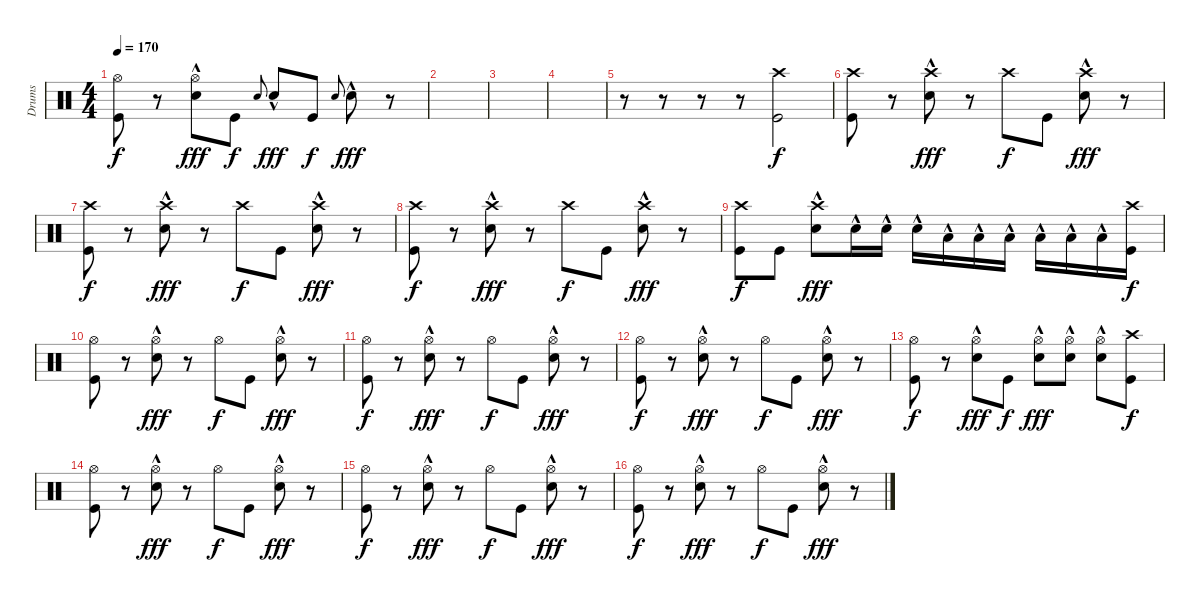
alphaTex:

\track ("Drums" "Drums") {instrument percussion}
\staff {score}
\articulation defaults
\ts (4 4)
\tempo 170
\clef neutral
\ks c
("Hi-Hat (open)" "Kick (hit)").8{dy f} r.8 ("Hi-Hat (open)" "Electric Snare (hit)"{hac}).8{dy fff} "Kick (hit)".8{dy f} "Electric Snare (hit)".8{gr onbeat} "Electric Snare (hit)"{hac}.8{dy fff} "Kick (hit)".8{dy f} "Electric Snare (hit)".8{gr onbeat} "Electric Snare (hit)"{hac}.8{dy fff} r.8 |
|
|
|
r.8 r.8 r.8 r.8 ("Crash high (hit)" "Kick (hit)").2{dy f} |
("Crash high (hit)" "Kick (hit)").8 r.8 ("Crash high (hit)" "Electric Snare (hit)"{hac}).8{dy fff} r.8 "Crash high (hit)".8{dy f} "Kick (hit)".8 ("Crash high (hit)" "Electric Snare (hit)"{hac}).8{dy fff} r.8 |
("Crash high (hit)" "Kick (hit)").8{dy f} r.8 ("Crash high (hit)" "Electric Snare (hit)"{hac}).8{dy fff} r.8 "Crash high (hit)".8{dy f} "Kick (hit)".8 ("Crash high (hit)" "Electric Snare (hit)"{hac}).8{dy fff} r.8 |
("Crash high (hit)" "Kick (hit)").8{dy f} r.8 ("Crash high (hit)" "Electric Snare (hit)"{hac}).8{dy fff} r.8 "Crash high (hit)".8{dy f} "Kick (hit)".8 ("Crash high (hit)" "Electric Snare (hit)"{hac}).8{dy fff} r.8 |
("Crash high (hit)" "Kick (hit)").8{dy f} "Kick (hit)".8 ("Crash high (hit)" "Electric Snare (hit)"{hac}).8{dy fff} "Electric Snare (hit)"{hac}.16 "Electric Snare (hit)"{hac}.16 "Electric Snare (hit)"{hac}.16 "Low Tom (hit)"{hac}.16 "Low Tom (hit)"{hac}.16 "Low Tom (hit)"{hac}.16 "Low Floor Tom (hit)"{hac}.16 "Low Floor Tom (hit)"{hac}.16 "Low Floor Tom (hit)"{hac}.16 ("Crash high (hit)" "Kick (hit)").16{dy f} |
("Hi-Hat (open)" "Kick (hit)").8 r.8 ("Hi-Hat (open)" "Electric Snare (hit)"{hac}).8{dy fff} r.8 "Hi-Hat (open)".8{dy f} "Kick (hit)".8 ("Hi-Hat (open)" "Electric Snare (hit)"{hac}).8{dy fff} r.8 |
("Hi-Hat (open)" "Kick (hit)").8{dy f} r.8 ("Hi-Hat (open)" "Electric Snare (hit)"{hac}).8{dy fff} r.8 "Hi-Hat (open)".8{dy f} "Kick (hit)".8 ("Hi-Hat (open)" "Electric Snare (hit)"{hac}).8{dy fff} r.8 |
("Hi-Hat (open)" "Kick (hit)").8{dy f} r.8 ("Hi-Hat (open)" "Electric Snare (hit)"{hac}).8{dy fff} r.8 "Hi-Hat (open)".8{dy f} "Kick (hit)".8 ("Hi-Hat (open)" "Electric Snare (hit)"{hac}).8{dy fff} r.8 |
("Hi-Hat (open)" "Kick (hit)").8{dy f} r.8 ("Hi-Hat (open)" "Electric Snare (hit)"{hac}).8{dy fff} "Kick (hit)".8{dy f} ("Hi-Hat (open)" "Electric Snare (hit)"{hac}).8{dy fff} ("Hi-Hat (open)" "Electric Snare (hit)"{hac}).8 ("Hi-Hat (open)" "Electric Snare (hit)"{hac}).8 ("Crash high (hit)" "Kick (hit)").8{dy f} |
("Hi-Hat (open)" "Kick (hit)").8 r.8 ("Hi-Hat (open)" "Electric Snare (hit)"{hac}).8{dy fff} r.8 "Hi-Hat (open)".8{dy f} "Kick (hit)".8 ("Hi-Hat (open)" "Electric Snare (hit)"{hac}).8{dy fff} r.8 |
("Hi-Hat (open)" "Kick (hit)").8{dy f} r.8 ("Hi-Hat (open)" "Electric Snare (hit)"{hac}).8{dy fff} r.8 "Hi-Hat (open)".8{dy f} "Kick (hit)".8 ("Hi-Hat (open)" "Electric Snare (hit)"{hac}).8{dy fff} r.8 |
("Hi-Hat (open)" "Kick (hit)").8{dy f} r.8 ("Hi-Hat (open)" "Electric Snare (hit)"{hac}).8{dy fff} r.8 "Hi-Hat (open)".8{dy f} "Kick (hit)".8 ("Hi-Hat (open)" "Electric Snare (hit)"{hac}).8{dy fff} r.8
